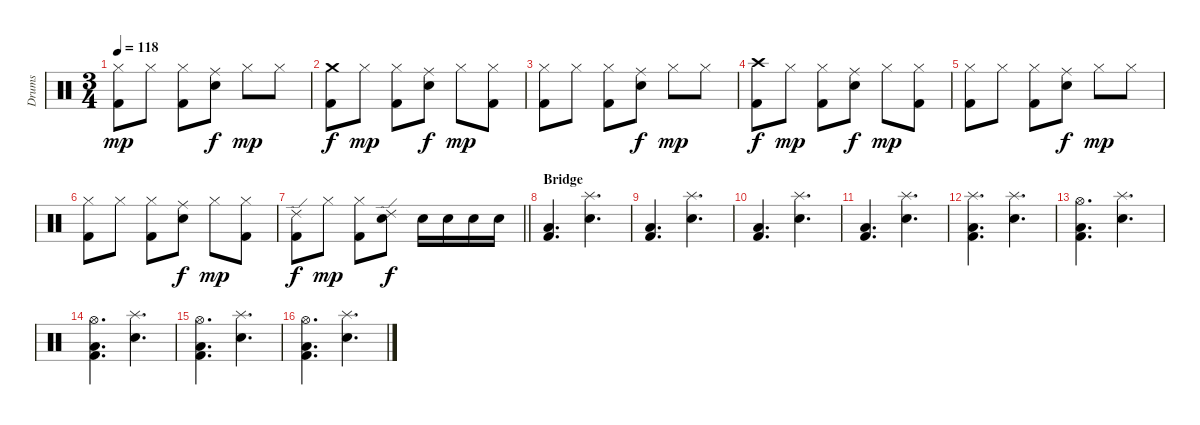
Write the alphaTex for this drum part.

\track ("Drums" "Drums") {instrument percussion}
\staff {score}
\articulation defaults
\ts (3 4)
\tempo 118
\clef neutral
\ks c
("Hi-Hat (closed)" "Kick (hit) 2").8{dy mp} "Hi-Hat (closed)".8 ("Hi-Hat (closed)" "Kick (hit) 2").8 ("Ride (middle)" "Snare (hit) 2").8{dy f} "Hi-Hat (closed)".8{dy mp} "Hi-Hat (closed)".8 |
("Crash medium (hit)" "Kick (hit) 2").8{dy f} "Hi-Hat (closed)".8{dy mp} ("Hi-Hat (closed)" "Kick (hit) 2").8 ("Ride (middle)" "Snare (hit) 2").8{dy f} "Hi-Hat (closed)".8{dy mp} ("Hi-Hat (closed)" "Kick (hit) 2").8 |
("Hi-Hat (closed)" "Kick (hit) 2").8 "Hi-Hat (closed)".8 ("Hi-Hat (closed)" "Kick (hit) 2").8 ("Ride (middle)" "Snare (hit) 2").8{dy f} "Hi-Hat (closed)".8{dy mp} "Hi-Hat (closed)".8 |
("Crash high (hit)" "Kick (hit) 2").8{dy f} "Hi-Hat (closed)".8{dy mp} ("Hi-Hat (closed)" "Kick (hit) 2").8 ("Ride (middle)" "Snare (hit) 2").8{dy f} "Hi-Hat (closed)".8{dy mp} ("Hi-Hat (closed)" "Kick (hit) 2").8 |
("Hi-Hat (closed)" "Kick (hit) 2").8 "Hi-Hat (closed)".8 ("Hi-Hat (closed)" "Kick (hit) 2").8 ("Ride (middle)" "Snare (hit) 2").8{dy f} "Hi-Hat (closed)".8{dy mp} "Hi-Hat (closed)".8 |
("Hi-Hat (closed)" "Kick (hit) 2").8 "Hi-Hat (closed)".8 ("Hi-Hat (closed)" "Kick (hit) 2").8 ("Ride (middle)" "Snare (hit) 2").8{dy f} "Hi-Hat (closed)".8{dy mp} ("Hi-Hat (closed)" "Kick (hit) 2").8 |
\barLineRight lightlight
("Ride (edge) 2" "Kick (hit) 2").8{dy f} "Hi-Hat (closed)".8{dy mp} ("Hi-Hat (closed)" "Kick (hit) 2").8 ("Ride (edge) 2" "Snare (hit) 2").8{dy f} "Snare (hit) 2".16 "Snare (hit) 2".16 "Snare (hit) 2".16 "Snare (hit) 2".16 |
\section ("" "Bridge")
("Low Floor Tom (hit)" "Kick (hit) 2").4{d} ("Splash (hit)" "Snare (hit) 2").4{d} |
("Low Floor Tom (hit)" "Kick (hit) 2").4{d} ("Splash (hit)" "Snare (hit) 2").4{d} |
("Low Floor Tom (hit)" "Kick (hit) 2").4{d} ("Splash (hit)" "Snare (hit) 2").4{d} |
("Low Floor Tom (hit)" "Kick (hit) 2").4{d} ("Splash (hit)" "Snare (hit) 2").4{d} |
("Splash (hit)" "Low Floor Tom (hit)" "Kick (hit) 2").4{d} ("Splash (hit)" "Snare (hit) 2").4{d} |
("Hi-Hat (open)" "Low Floor Tom (hit)" "Kick (hit) 2").4{d} ("Splash (hit)" "Snare (hit) 2").4{d} |
("Hi-Hat (open)" "Low Floor Tom (hit)" "Kick (hit) 2").4{d} ("Splash (hit)" "Snare (hit) 2").4{d} |
("Hi-Hat (open)" "Low Floor Tom (hit)" "Kick (hit) 2").4{d} ("Splash (hit)" "Snare (hit) 2").4{d} |
("Hi-Hat (open)" "Low Floor Tom (hit)" "Kick (hit) 2").4{d} ("Splash (hit)" "Snare (hit) 2").4{d}
